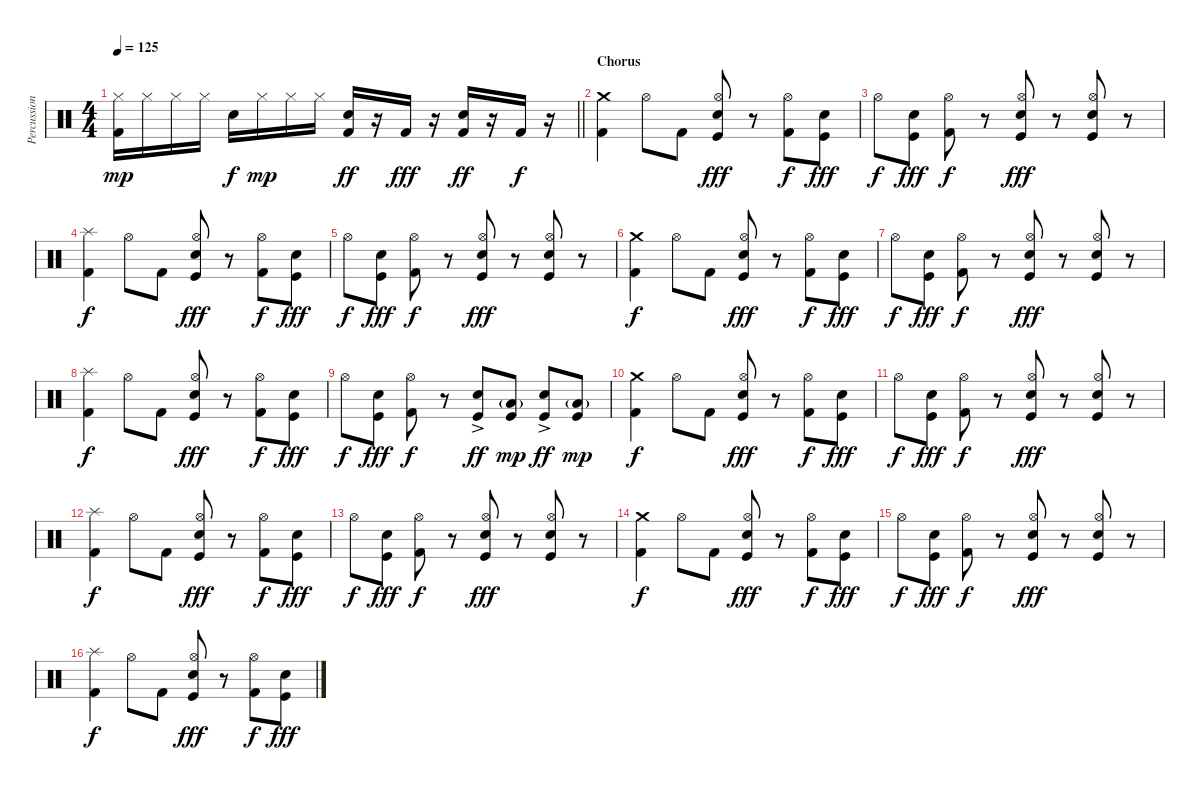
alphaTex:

\track ("Percussion" "Percussion") {instrument percussion}
\staff {score}
\articulation defaults
\ts (4 4)
\tempo 125
\clef neutral
\barLineRight lightlight
\ks c
("Hi-Hat (closed)" "Kick (hit) 2").16{dy mp} "Hi-Hat (closed)".16 "Hi-Hat (closed)".16 "Hi-Hat (closed)".16 "Electric Snare (hit)".16{dy f} "Hi-Hat (closed)".16{dy mp} "Hi-Hat (closed)".16 "Hi-Hat (closed)".16 ("Electric Snare (hit)" "Kick (hit) 2").16{dy ff} r.16 "Kick (hit) 2".16{dy fff} r.16 ("Electric Snare (hit)" "Kick (hit) 2").16{dy ff} r.16 "Kick (hit) 2".16{dy f} r.16 |
\section ("" "Chorus")
("Crash medium (hit)" "Kick (hit) 2").4 "Hi-Hat (open)".8 "Kick (hit) 2".8 ("Hi-Hat (open)" "Electric Snare (hit)" "Kick (hit)").8{dy fff} r.8 ("Hi-Hat (open)" "Kick (hit) 2").8{dy f} ("Electric Snare (hit)" "Kick (hit)").8{dy fff} |
"Hi-Hat (open)".8{dy f} ("Electric Snare (hit)" "Kick (hit)").8{dy fff} ("Hi-Hat (open)" "Kick (hit) 2").8{dy f} r.8 ("Hi-Hat (open)" "Electric Snare (hit)" "Kick (hit)").8{dy fff} r.8 ("Hi-Hat (open)" "Electric Snare (hit)" "Kick (hit)").8 r.8 |
("Splash (hit)" "Kick (hit) 2").4{dy f} "Hi-Hat (open)".8 "Kick (hit) 2".8 ("Hi-Hat (open)" "Electric Snare (hit)" "Kick (hit)").8{dy fff} r.8 ("Hi-Hat (open)" "Kick (hit) 2").8{dy f} ("Electric Snare (hit)" "Kick (hit)").8{dy fff} |
"Hi-Hat (open)".8{dy f} ("Electric Snare (hit)" "Kick (hit)").8{dy fff} ("Hi-Hat (open)" "Kick (hit) 2").8{dy f} r.8 ("Hi-Hat (open)" "Electric Snare (hit)" "Kick (hit)").8{dy fff} r.8 ("Hi-Hat (open)" "Electric Snare (hit)" "Kick (hit)").8 r.8 |
("Crash medium (hit)" "Kick (hit) 2").4{dy f} "Hi-Hat (open)".8 "Kick (hit) 2".8 ("Hi-Hat (open)" "Electric Snare (hit)" "Kick (hit)").8{dy fff} r.8 ("Hi-Hat (open)" "Kick (hit) 2").8{dy f} ("Electric Snare (hit)" "Kick (hit)").8{dy fff} |
"Hi-Hat (open)".8{dy f} ("Electric Snare (hit)" "Kick (hit)").8{dy fff} ("Hi-Hat (open)" "Kick (hit) 2").8{dy f} r.8 ("Hi-Hat (open)" "Electric Snare (hit)" "Kick (hit)").8{dy fff} r.8 ("Hi-Hat (open)" "Electric Snare (hit)" "Kick (hit)").8 r.8 |
("Splash (hit)" "Kick (hit) 2").4{dy f} "Hi-Hat (open)".8 "Kick (hit) 2".8 ("Hi-Hat (open)" "Electric Snare (hit)" "Kick (hit)").8{dy fff} r.8 ("Hi-Hat (open)" "Kick (hit) 2").8{dy f} ("Electric Snare (hit)" "Kick (hit)").8{dy fff} |
"Hi-Hat (open)".8{dy f} ("Electric Snare (hit)" "Kick (hit)").8{dy fff} ("Hi-Hat (open)" "Kick (hit) 2").8{dy f} r.8 ("Snare (hit) 2"{ac} "Kick (hit)").8{dy ff} ("Low Floor Tom (hit)"{g} "Kick (hit)").8{dy mp} ("Snare (hit) 2"{ac} "Kick (hit)").8{dy ff} ("Low Floor Tom (hit)"{g} "Kick (hit)").8{dy mp} |
("Crash medium (hit)" "Kick (hit) 2").4{dy f} "Hi-Hat (open)".8 "Kick (hit) 2".8 ("Hi-Hat (open)" "Electric Snare (hit)" "Kick (hit)").8{dy fff} r.8 ("Hi-Hat (open)" "Kick (hit) 2").8{dy f} ("Electric Snare (hit)" "Kick (hit)").8{dy fff} |
"Hi-Hat (open)".8{dy f} ("Electric Snare (hit)" "Kick (hit)").8{dy fff} ("Hi-Hat (open)" "Kick (hit) 2").8{dy f} r.8 ("Hi-Hat (open)" "Electric Snare (hit)" "Kick (hit)").8{dy fff} r.8 ("Hi-Hat (open)" "Electric Snare (hit)" "Kick (hit)").8 r.8 |
("Splash (hit)" "Kick (hit) 2").4{dy f} "Hi-Hat (open)".8 "Kick (hit) 2".8 ("Hi-Hat (open)" "Electric Snare (hit)" "Kick (hit)").8{dy fff} r.8 ("Hi-Hat (open)" "Kick (hit) 2").8{dy f} ("Electric Snare (hit)" "Kick (hit)").8{dy fff} |
"Hi-Hat (open)".8{dy f} ("Electric Snare (hit)" "Kick (hit)").8{dy fff} ("Hi-Hat (open)" "Kick (hit) 2").8{dy f} r.8 ("Hi-Hat (open)" "Electric Snare (hit)" "Kick (hit)").8{dy fff} r.8 ("Hi-Hat (open)" "Electric Snare (hit)" "Kick (hit)").8 r.8 |
("Crash medium (hit)" "Kick (hit) 2").4{dy f} "Hi-Hat (open)".8 "Kick (hit) 2".8 ("Hi-Hat (open)" "Electric Snare (hit)" "Kick (hit)").8{dy fff} r.8 ("Hi-Hat (open)" "Kick (hit) 2").8{dy f} ("Electric Snare (hit)" "Kick (hit)").8{dy fff} |
"Hi-Hat (open)".8{dy f} ("Electric Snare (hit)" "Kick (hit)").8{dy fff} ("Hi-Hat (open)" "Kick (hit) 2").8{dy f} r.8 ("Hi-Hat (open)" "Electric Snare (hit)" "Kick (hit)").8{dy fff} r.8 ("Hi-Hat (open)" "Electric Snare (hit)" "Kick (hit)").8 r.8 |
("Splash (hit)" "Kick (hit) 2").4{dy f} "Hi-Hat (open)".8 "Kick (hit) 2".8 ("Hi-Hat (open)" "Electric Snare (hit)" "Kick (hit)").8{dy fff} r.8 ("Hi-Hat (open)" "Kick (hit) 2").8{dy f} ("Electric Snare (hit)" "Kick (hit)").8{dy fff}
